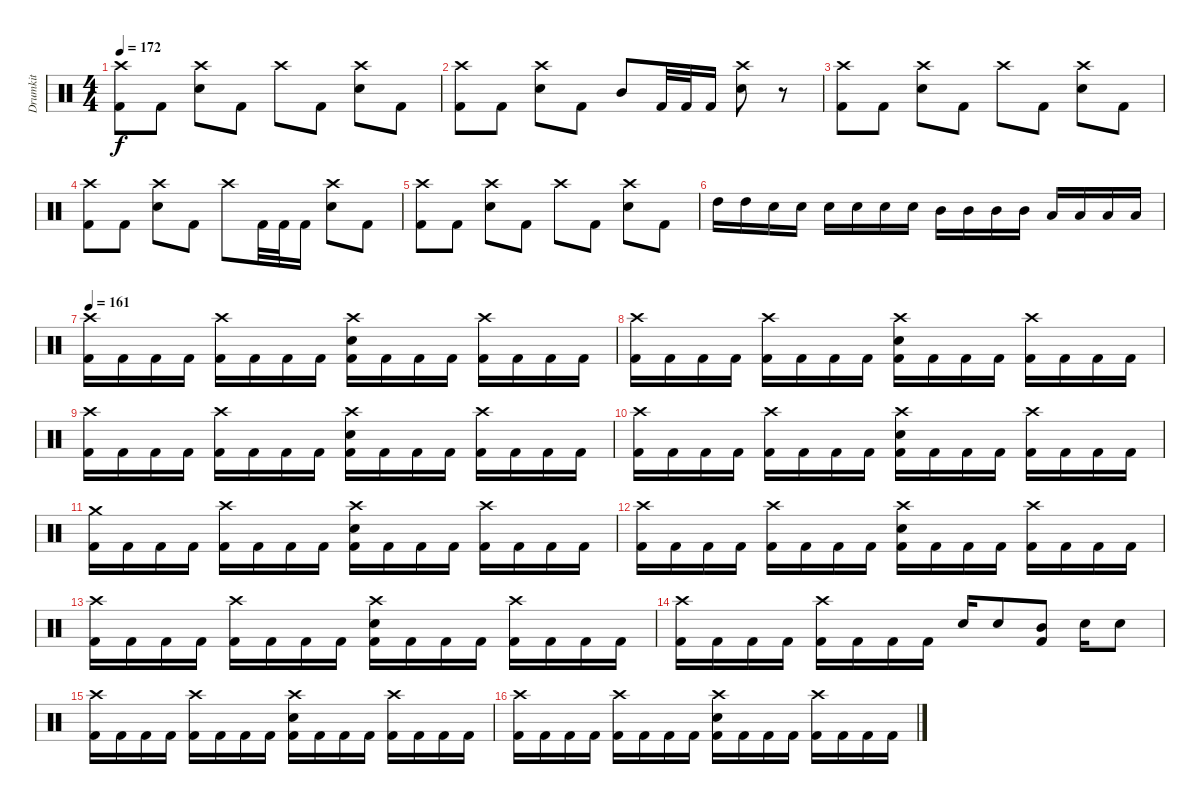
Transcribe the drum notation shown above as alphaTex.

\track ("Drumkit" "Drumkit") {instrument percussion}
\staff {score}
\articulation defaults
\ts (4 4)
\tempo 172
\clef neutral
\ks c
("Crash high (hit)" "Kick (hit) 2").8{dy f} "Kick (hit) 2".8 ("Crash high (hit)" "Snare (hit) 2").8 "Kick (hit) 2".8 "Crash high (hit)".8 "Kick (hit) 2".8 ("Crash high (hit)" "Snare (hit) 2").8 "Kick (hit) 2".8 |
("Crash high (hit)" "Kick (hit) 2").8 "Kick (hit) 2".8 ("Crash high (hit)" "Snare (hit) 2").8 "Kick (hit) 2".8 "Mid Tom (hit)".8 "Kick (hit) 2".32 "Kick (hit) 2".32 "Kick (hit) 2".16 ("Crash high (hit)" "Snare (hit) 2").8 r.8 |
("Crash high (hit)" "Kick (hit) 2").8 "Kick (hit) 2".8 ("Crash high (hit)" "Snare (hit) 2").8 "Kick (hit) 2".8 "Crash high (hit)".8 "Kick (hit) 2".8 ("Crash high (hit)" "Snare (hit) 2").8 "Kick (hit) 2".8 |
("Crash high (hit)" "Kick (hit) 2").8 "Kick (hit) 2".8 ("Crash high (hit)" "Snare (hit) 2").8 "Kick (hit) 2".8 "Crash high (hit)".8 "Kick (hit) 2".32 "Kick (hit) 2".32 "Kick (hit) 2".16 ("Crash high (hit)" "Snare (hit) 2").8 "Kick (hit) 2".8 |
("Crash high (hit)" "Kick (hit) 2").8 "Kick (hit) 2".8 ("Crash high (hit)" "Snare (hit) 2").8 "Kick (hit) 2".8 "Crash high (hit)".8 "Kick (hit) 2".8 ("Crash high (hit)" "Snare (hit) 2").8 "Kick (hit) 2".8 |
"High Tom (hit)".16 "High Tom (hit)".16 "Snare (hit) 2".16 "Snare (hit) 2".16 "Snare (hit) 2".16 "Snare (hit) 2".16 "Snare (hit) 2".16 "Snare (hit) 2".16 "Mid Tom (hit)".16 "Mid Tom (hit)".16 "Mid Tom (hit)".16 "Mid Tom (hit)".16 "Low Tom (hit)".16 "Low Tom (hit)".16 "Low Tom (hit)".16 "Low Tom (hit)".16 |
\tempo 161
("Crash high (hit)" "Kick (hit) 2").16 "Kick (hit) 2".16 "Kick (hit) 2".16 "Kick (hit) 2".16 ("Crash high (hit)" "Kick (hit) 2").16 "Kick (hit) 2".16 "Kick (hit) 2".16 "Kick (hit) 2".16 ("Crash high (hit)" "Snare (hit) 2" "Kick (hit) 2").16 "Kick (hit) 2".16 "Kick (hit) 2".16 "Kick (hit) 2".16 ("Crash high (hit)" "Kick (hit) 2").16 "Kick (hit) 2".16 "Kick (hit) 2".16 "Kick (hit) 2".16 |
("Crash high (hit)" "Kick (hit) 2").16 "Kick (hit) 2".16 "Kick (hit) 2".16 "Kick (hit) 2".16 ("Crash high (hit)" "Kick (hit) 2").16 "Kick (hit) 2".16 "Kick (hit) 2".16 "Kick (hit) 2".16 ("Crash high (hit)" "Snare (hit) 2" "Kick (hit) 2").16 "Kick (hit) 2".16 "Kick (hit) 2".16 "Kick (hit) 2".16 ("Crash high (hit)" "Kick (hit) 2").16 "Kick (hit) 2".16 "Kick (hit) 2".16 "Kick (hit) 2".16 |
("Crash high (hit)" "Kick (hit) 2").16 "Kick (hit) 2".16 "Kick (hit) 2".16 "Kick (hit) 2".16 ("Crash high (hit)" "Kick (hit) 2").16 "Kick (hit) 2".16 "Kick (hit) 2".16 "Kick (hit) 2".16 ("Crash high (hit)" "Snare (hit) 2" "Kick (hit) 2").16 "Kick (hit) 2".16 "Kick (hit) 2".16 "Kick (hit) 2".16 ("Crash high (hit)" "Kick (hit) 2").16 "Kick (hit) 2".16 "Kick (hit) 2".16 "Kick (hit) 2".16 |
("Crash high (hit)" "Kick (hit) 2").16 "Kick (hit) 2".16 "Kick (hit) 2".16 "Kick (hit) 2".16 ("Crash high (hit)" "Kick (hit) 2").16 "Kick (hit) 2".16 "Kick (hit) 2".16 "Kick (hit) 2".16 ("Crash high (hit)" "Snare (hit) 2" "Kick (hit) 2").16 "Kick (hit) 2".16 "Kick (hit) 2".16 "Kick (hit) 2".16 ("Crash high (hit)" "Kick (hit) 2").16 "Kick (hit) 2".16 "Kick (hit) 2".16 "Kick (hit) 2".16 |
("Crash medium (hit)" "Kick (hit) 2").16 "Kick (hit) 2".16 "Kick (hit) 2".16 "Kick (hit) 2".16 ("Crash high (hit)" "Kick (hit) 2").16 "Kick (hit) 2".16 "Kick (hit) 2".16 "Kick (hit) 2".16 ("Crash high (hit)" "Snare (hit) 2" "Kick (hit) 2").16 "Kick (hit) 2".16 "Kick (hit) 2".16 "Kick (hit) 2".16 ("Crash high (hit)" "Kick (hit) 2").16 "Kick (hit) 2".16 "Kick (hit) 2".16 "Kick (hit) 2".16 |
("Crash high (hit)" "Kick (hit) 2").16 "Kick (hit) 2".16 "Kick (hit) 2".16 "Kick (hit) 2".16 ("Crash high (hit)" "Kick (hit) 2").16 "Kick (hit) 2".16 "Kick (hit) 2".16 "Kick (hit) 2".16 ("Crash high (hit)" "Snare (hit) 2" "Kick (hit) 2").16 "Kick (hit) 2".16 "Kick (hit) 2".16 "Kick (hit) 2".16 ("Crash high (hit)" "Kick (hit) 2").16 "Kick (hit) 2".16 "Kick (hit) 2".16 "Kick (hit) 2".16 |
("Crash high (hit)" "Kick (hit) 2").16 "Kick (hit) 2".16 "Kick (hit) 2".16 "Kick (hit) 2".16 ("Crash high (hit)" "Kick (hit) 2").16 "Kick (hit) 2".16 "Kick (hit) 2".16 "Kick (hit) 2".16 ("Crash high (hit)" "Snare (hit) 2" "Kick (hit) 2").16 "Kick (hit) 2".16 "Kick (hit) 2".16 "Kick (hit) 2".16 ("Crash high (hit)" "Kick (hit) 2").16 "Kick (hit) 2".16 "Kick (hit) 2".16 "Kick (hit) 2".16 |
("Crash high (hit)" "Kick (hit) 2").16 "Kick (hit) 2".16 "Kick (hit) 2".16 "Kick (hit) 2".16 ("Crash high (hit)" "Kick (hit) 2").16 "Kick (hit) 2".16 "Kick (hit) 2".16 "Kick (hit) 2".16 "Snare (hit) 2".16 "Snare (hit) 2".8 ("Mid Tom (hit)" "Kick (hit) 2").8 "Snare (hit) 2".16 "Snare (hit) 2".8 |
("Crash high (hit)" "Kick (hit) 2").16 "Kick (hit) 2".16 "Kick (hit) 2".16 "Kick (hit) 2".16 ("Crash high (hit)" "Kick (hit) 2").16 "Kick (hit) 2".16 "Kick (hit) 2".16 "Kick (hit) 2".16 ("Crash high (hit)" "Snare (hit) 2" "Kick (hit) 2").16 "Kick (hit) 2".16 "Kick (hit) 2".16 "Kick (hit) 2".16 ("Crash high (hit)" "Kick (hit) 2").16 "Kick (hit) 2".16 "Kick (hit) 2".16 "Kick (hit) 2".16 |
("Crash high (hit)" "Kick (hit) 2").16 "Kick (hit) 2".16 "Kick (hit) 2".16 "Kick (hit) 2".16 ("Crash high (hit)" "Kick (hit) 2").16 "Kick (hit) 2".16 "Kick (hit) 2".16 "Kick (hit) 2".16 ("Crash high (hit)" "Snare (hit) 2" "Kick (hit) 2").16 "Kick (hit) 2".16 "Kick (hit) 2".16 "Kick (hit) 2".16 ("Crash high (hit)" "Kick (hit) 2").16 "Kick (hit) 2".16 "Kick (hit) 2".16 "Kick (hit) 2".16
